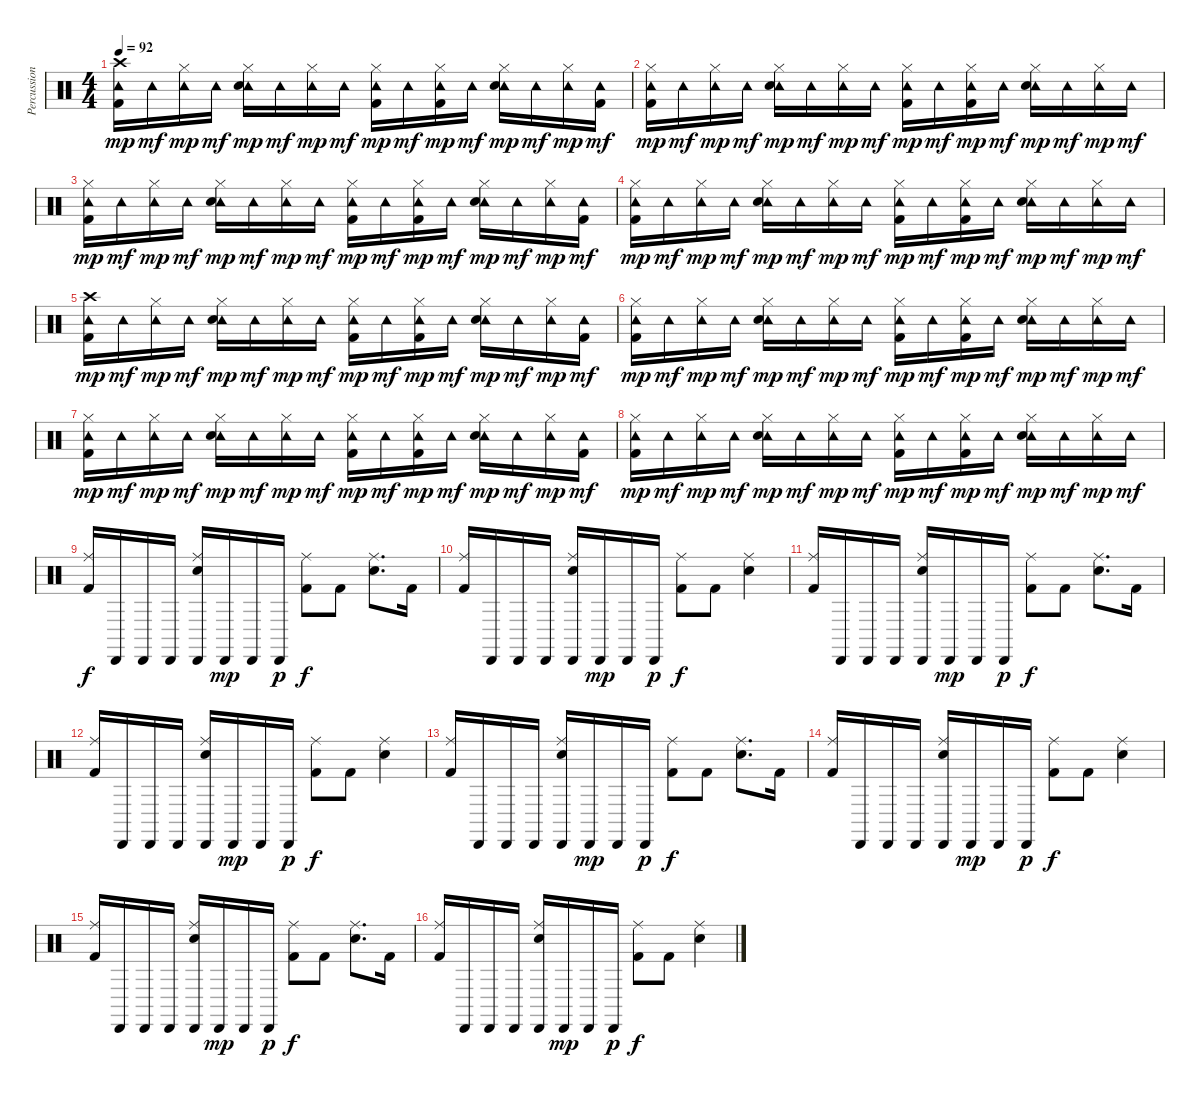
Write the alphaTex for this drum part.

\track ("Percussion" "Percussion") {instrument percussion}
\staff {score}
\articulation defaults
\ts (4 4)
\tempo 92
\clef neutral
\ks c
("Tambourine (hit)" "Crash high (hit)" "Kick (hit) 2").16{dy mp} "Tambourine (hit)".16{dy mf} ("Tambourine (hit)" "Hi-Hat (closed)").16{dy mp} "Tambourine (hit)".16{dy mf} ("Tambourine (hit)" "Hi-Hat (closed)" "Electric Snare (hit)").16{dy mp} "Tambourine (hit)".16{dy mf} ("Tambourine (hit)" "Hi-Hat (closed)").16{dy mp} "Tambourine (hit)".16{dy mf} ("Tambourine (hit)" "Hi-Hat (closed)" "Kick (hit) 2").16{dy mp} "Tambourine (hit)".16{dy mf} ("Tambourine (hit)" "Hi-Hat (closed)" "Kick (hit) 2").16{dy mp} "Tambourine (hit)".16{dy mf} ("Tambourine (hit)" "Hi-Hat (closed)" "Electric Snare (hit)").16{dy mp} "Tambourine (hit)".16{dy mf} ("Tambourine (hit)" "Hi-Hat (closed)").16{dy mp} ("Tambourine (hit)" "Kick (hit) 2").16{dy mf} |
("Tambourine (hit)" "Hi-Hat (closed)" "Kick (hit) 2").16{dy mp} "Tambourine (hit)".16{dy mf} ("Tambourine (hit)" "Hi-Hat (closed)").16{dy mp} "Tambourine (hit)".16{dy mf} ("Tambourine (hit)" "Hi-Hat (closed)" "Electric Snare (hit)").16{dy mp} "Tambourine (hit)".16{dy mf} ("Tambourine (hit)" "Hi-Hat (closed)").16{dy mp} "Tambourine (hit)".16{dy mf} ("Tambourine (hit)" "Hi-Hat (closed)" "Kick (hit) 2").16{dy mp} "Tambourine (hit)".16{dy mf} ("Tambourine (hit)" "Hi-Hat (closed)" "Kick (hit) 2").16{dy mp} "Tambourine (hit)".16{dy mf} ("Tambourine (hit)" "Hi-Hat (closed)" "Electric Snare (hit)").16{dy mp} "Tambourine (hit)".16{dy mf} ("Tambourine (hit)" "Hi-Hat (closed)").16{dy mp} "Tambourine (hit)".16{dy mf} |
("Tambourine (hit)" "Hi-Hat (closed)" "Kick (hit) 2").16{dy mp} "Tambourine (hit)".16{dy mf} ("Tambourine (hit)" "Hi-Hat (closed)").16{dy mp} "Tambourine (hit)".16{dy mf} ("Tambourine (hit)" "Hi-Hat (closed)" "Electric Snare (hit)").16{dy mp} "Tambourine (hit)".16{dy mf} ("Tambourine (hit)" "Hi-Hat (closed)").16{dy mp} "Tambourine (hit)".16{dy mf} ("Tambourine (hit)" "Hi-Hat (closed)" "Kick (hit) 2").16{dy mp} "Tambourine (hit)".16{dy mf} ("Tambourine (hit)" "Hi-Hat (closed)" "Kick (hit) 2").16{dy mp} "Tambourine (hit)".16{dy mf} ("Tambourine (hit)" "Hi-Hat (closed)" "Electric Snare (hit)").16{dy mp} "Tambourine (hit)".16{dy mf} ("Tambourine (hit)" "Hi-Hat (closed)").16{dy mp} ("Tambourine (hit)" "Kick (hit) 2").16{dy mf} |
("Tambourine (hit)" "Hi-Hat (closed)" "Kick (hit) 2").16{dy mp} "Tambourine (hit)".16{dy mf} ("Tambourine (hit)" "Hi-Hat (closed)").16{dy mp} "Tambourine (hit)".16{dy mf} ("Tambourine (hit)" "Hi-Hat (closed)" "Electric Snare (hit)").16{dy mp} "Tambourine (hit)".16{dy mf} ("Tambourine (hit)" "Hi-Hat (closed)").16{dy mp} "Tambourine (hit)".16{dy mf} ("Tambourine (hit)" "Hi-Hat (closed)" "Kick (hit) 2").16{dy mp} "Tambourine (hit)".16{dy mf} ("Tambourine (hit)" "Hi-Hat (closed)" "Kick (hit) 2").16{dy mp} "Tambourine (hit)".16{dy mf} ("Tambourine (hit)" "Hi-Hat (closed)" "Electric Snare (hit)").16{dy mp} "Tambourine (hit)".16{dy mf} ("Tambourine (hit)" "Hi-Hat (closed)").16{dy mp} "Tambourine (hit)".16{dy mf} |
("Tambourine (hit)" "Crash high (hit)" "Kick (hit) 2").16{dy mp} "Tambourine (hit)".16{dy mf} ("Tambourine (hit)" "Hi-Hat (closed)").16{dy mp} "Tambourine (hit)".16{dy mf} ("Tambourine (hit)" "Hi-Hat (closed)" "Electric Snare (hit)").16{dy mp} "Tambourine (hit)".16{dy mf} ("Tambourine (hit)" "Hi-Hat (closed)").16{dy mp} "Tambourine (hit)".16{dy mf} ("Tambourine (hit)" "Hi-Hat (closed)" "Kick (hit) 2").16{dy mp} "Tambourine (hit)".16{dy mf} ("Tambourine (hit)" "Hi-Hat (closed)" "Kick (hit) 2").16{dy mp} "Tambourine (hit)".16{dy mf} ("Tambourine (hit)" "Hi-Hat (closed)" "Electric Snare (hit)").16{dy mp} "Tambourine (hit)".16{dy mf} ("Tambourine (hit)" "Hi-Hat (closed)").16{dy mp} ("Tambourine (hit)" "Kick (hit) 2").16{dy mf} |
("Tambourine (hit)" "Hi-Hat (closed)" "Kick (hit) 2").16{dy mp} "Tambourine (hit)".16{dy mf} ("Tambourine (hit)" "Hi-Hat (closed)").16{dy mp} "Tambourine (hit)".16{dy mf} ("Tambourine (hit)" "Hi-Hat (closed)" "Electric Snare (hit)").16{dy mp} "Tambourine (hit)".16{dy mf} ("Tambourine (hit)" "Hi-Hat (closed)").16{dy mp} "Tambourine (hit)".16{dy mf} ("Tambourine (hit)" "Hi-Hat (closed)" "Kick (hit) 2").16{dy mp} "Tambourine (hit)".16{dy mf} ("Tambourine (hit)" "Hi-Hat (closed)" "Kick (hit) 2").16{dy mp} "Tambourine (hit)".16{dy mf} ("Tambourine (hit)" "Hi-Hat (closed)" "Electric Snare (hit)").16{dy mp} "Tambourine (hit)".16{dy mf} ("Tambourine (hit)" "Hi-Hat (closed)").16{dy mp} "Tambourine (hit)".16{dy mf} |
("Tambourine (hit)" "Hi-Hat (closed)" "Kick (hit) 2").16{dy mp} "Tambourine (hit)".16{dy mf} ("Tambourine (hit)" "Hi-Hat (closed)").16{dy mp} "Tambourine (hit)".16{dy mf} ("Tambourine (hit)" "Hi-Hat (closed)" "Electric Snare (hit)").16{dy mp} "Tambourine (hit)".16{dy mf} ("Tambourine (hit)" "Hi-Hat (closed)").16{dy mp} "Tambourine (hit)".16{dy mf} ("Tambourine (hit)" "Hi-Hat (closed)" "Kick (hit) 2").16{dy mp} "Tambourine (hit)".16{dy mf} ("Tambourine (hit)" "Hi-Hat (closed)" "Kick (hit) 2").16{dy mp} "Tambourine (hit)".16{dy mf} ("Tambourine (hit)" "Hi-Hat (closed)" "Electric Snare (hit)").16{dy mp} "Tambourine (hit)".16{dy mf} ("Tambourine (hit)" "Hi-Hat (closed)").16{dy mp} ("Tambourine (hit)" "Kick (hit) 2").16{dy mf} |
("Tambourine (hit)" "Hi-Hat (closed)" "Kick (hit) 2").16{dy mp} "Tambourine (hit)".16{dy mf} ("Tambourine (hit)" "Hi-Hat (closed)").16{dy mp} "Tambourine (hit)".16{dy mf} ("Tambourine (hit)" "Hi-Hat (closed)" "Electric Snare (hit)").16{dy mp} "Tambourine (hit)".16{dy mf} ("Tambourine (hit)" "Hi-Hat (closed)").16{dy mp} "Tambourine (hit)".16{dy mf} ("Tambourine (hit)" "Hi-Hat (closed)" "Kick (hit) 2").16{dy mp} "Tambourine (hit)".16{dy mf} ("Tambourine (hit)" "Hi-Hat (closed)" "Kick (hit) 2").16{dy mp} "Tambourine (hit)".16{dy mf} ("Tambourine (hit)" "Hi-Hat (closed)" "Electric Snare (hit)").16{dy mp} "Tambourine (hit)".16{dy mf} ("Tambourine (hit)" "Hi-Hat (closed)").16{dy mp} "Tambourine (hit)".16{dy mf} |
("Ride (middle)" "Kick (hit) 2").16{dy f} "Cabasa (hit)".16 "Cabasa (hit)".16 "Cabasa (hit)".16 ("Cabasa (hit)" "Ride (middle)" "Electric Snare (hit)").16 "Cabasa (hit)".16{dy mp} "Cabasa (hit)".16 "Cabasa (hit)".16{dy p} ("Ride (middle)" "Kick (hit) 2").8{dy f} "Kick (hit) 2".8 ("Ride (middle)" "Electric Snare (hit)").8{d} "Kick (hit) 2".16 |
("Ride (middle)" "Kick (hit) 2").16 "Cabasa (hit)".16 "Cabasa (hit)".16 "Cabasa (hit)".16 ("Cabasa (hit)" "Ride (middle)" "Electric Snare (hit)").16 "Cabasa (hit)".16{dy mp} "Cabasa (hit)".16 "Cabasa (hit)".16{dy p} ("Ride (middle)" "Kick (hit) 2").8{dy f} "Kick (hit) 2".8 ("Ride (middle)" "Electric Snare (hit)").4 |
("Ride (middle)" "Kick (hit) 2").16 "Cabasa (hit)".16 "Cabasa (hit)".16 "Cabasa (hit)".16 ("Cabasa (hit)" "Ride (middle)" "Electric Snare (hit)").16 "Cabasa (hit)".16{dy mp} "Cabasa (hit)".16 "Cabasa (hit)".16{dy p} ("Ride (middle)" "Kick (hit) 2").8{dy f} "Kick (hit) 2".8 ("Ride (middle)" "Electric Snare (hit)").8{d} "Kick (hit) 2".16 |
("Ride (middle)" "Kick (hit) 2").16 "Cabasa (hit)".16 "Cabasa (hit)".16 "Cabasa (hit)".16 ("Cabasa (hit)" "Ride (middle)" "Electric Snare (hit)").16 "Cabasa (hit)".16{dy mp} "Cabasa (hit)".16 "Cabasa (hit)".16{dy p} ("Ride (middle)" "Kick (hit) 2").8{dy f} "Kick (hit) 2".8 ("Ride (middle)" "Electric Snare (hit)").4 |
("Ride (middle)" "Kick (hit) 2").16 "Cabasa (hit)".16 "Cabasa (hit)".16 "Cabasa (hit)".16 ("Cabasa (hit)" "Ride (middle)" "Electric Snare (hit)").16 "Cabasa (hit)".16{dy mp} "Cabasa (hit)".16 "Cabasa (hit)".16{dy p} ("Ride (middle)" "Kick (hit) 2").8{dy f} "Kick (hit) 2".8 ("Ride (middle)" "Electric Snare (hit)").8{d} "Kick (hit) 2".16 |
("Ride (middle)" "Kick (hit) 2").16 "Cabasa (hit)".16 "Cabasa (hit)".16 "Cabasa (hit)".16 ("Cabasa (hit)" "Ride (middle)" "Electric Snare (hit)").16 "Cabasa (hit)".16{dy mp} "Cabasa (hit)".16 "Cabasa (hit)".16{dy p} ("Ride (middle)" "Kick (hit) 2").8{dy f} "Kick (hit) 2".8 ("Ride (middle)" "Electric Snare (hit)").4 |
("Ride (middle)" "Kick (hit) 2").16 "Cabasa (hit)".16 "Cabasa (hit)".16 "Cabasa (hit)".16 ("Cabasa (hit)" "Ride (middle)" "Electric Snare (hit)").16 "Cabasa (hit)".16{dy mp} "Cabasa (hit)".16 "Cabasa (hit)".16{dy p} ("Ride (middle)" "Kick (hit) 2").8{dy f} "Kick (hit) 2".8 ("Ride (middle)" "Electric Snare (hit)").8{d} "Kick (hit) 2".16 |
("Ride (middle)" "Kick (hit) 2").16 "Cabasa (hit)".16 "Cabasa (hit)".16 "Cabasa (hit)".16 ("Cabasa (hit)" "Ride (middle)" "Electric Snare (hit)").16 "Cabasa (hit)".16{dy mp} "Cabasa (hit)".16 "Cabasa (hit)".16{dy p} ("Ride (middle)" "Kick (hit) 2").8{dy f} "Kick (hit) 2".8 ("Ride (middle)" "Electric Snare (hit)").4
